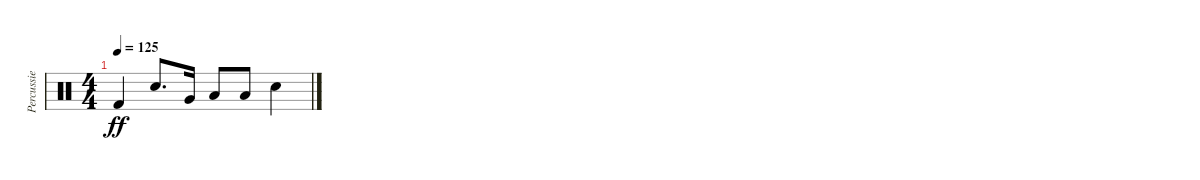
\track ("Percussie" "Percussie") {instrument percussion}
\staff {score}
\articulation defaults
\ts (4 4)
\tempo 125
\clef neutral
\ks c "Kick (hit) 2".4{dy ff} "Electric Snare (hit)".8{d} "Very Low Tom (hit)".16 "Low Tom (hit)".8 "Low Tom (hit)".8 "Snare (hit) 2".4
